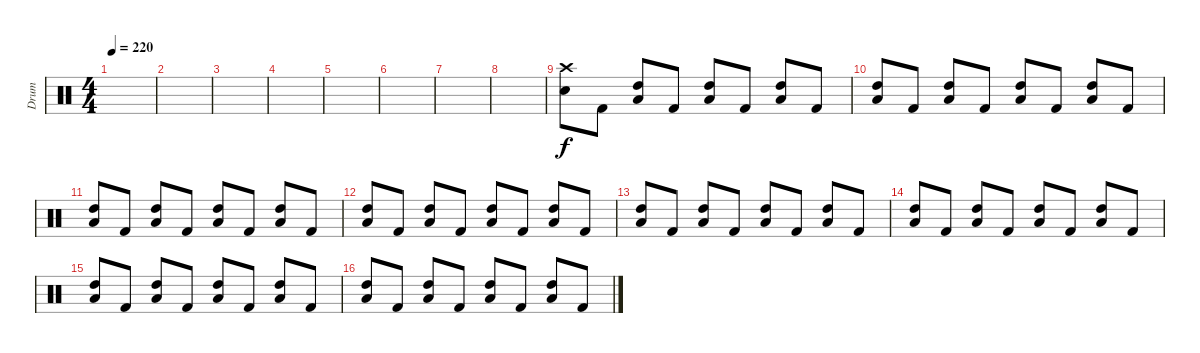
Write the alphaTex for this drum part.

\track ("Drum" "Drum") {instrument percussion}
\staff {score}
\articulation defaults
\ts (4 4)
\tempo 220
\clef neutral
\ks c
|
|
|
|
|
|
|
|
("Crash high (hit)" "Electric Snare (hit)").8 "Kick (hit) 2".8 ("High Tom (hit)" "Low Floor Tom (hit)").8 "Kick (hit) 2".8 ("High Tom (hit)" "Low Floor Tom (hit)").8 "Kick (hit) 2".8 ("High Tom (hit)" "Low Floor Tom (hit)").8 "Kick (hit) 2".8 |
("High Tom (hit)" "Low Floor Tom (hit)").8 "Kick (hit) 2".8 ("High Tom (hit)" "Low Floor Tom (hit)").8 "Kick (hit) 2".8 ("High Tom (hit)" "Low Floor Tom (hit)").8 "Kick (hit) 2".8 ("High Tom (hit)" "Low Floor Tom (hit)").8 "Kick (hit) 2".8 |
("High Tom (hit)" "Low Floor Tom (hit)").8 "Kick (hit) 2".8 ("High Tom (hit)" "Low Floor Tom (hit)").8 "Kick (hit) 2".8 ("High Tom (hit)" "Low Floor Tom (hit)").8 "Kick (hit) 2".8 ("High Tom (hit)" "Low Floor Tom (hit)").8 "Kick (hit) 2".8 |
("High Tom (hit)" "Low Floor Tom (hit)").8 "Kick (hit) 2".8 ("High Tom (hit)" "Low Floor Tom (hit)").8 "Kick (hit) 2".8 ("High Tom (hit)" "Low Floor Tom (hit)").8 "Kick (hit) 2".8 ("High Tom (hit)" "Low Floor Tom (hit)").8 "Kick (hit) 2".8 |
("High Tom (hit)" "Low Floor Tom (hit)").8 "Kick (hit) 2".8 ("High Tom (hit)" "Low Floor Tom (hit)").8 "Kick (hit) 2".8 ("High Tom (hit)" "Low Floor Tom (hit)").8 "Kick (hit) 2".8 ("High Tom (hit)" "Low Floor Tom (hit)").8 "Kick (hit) 2".8 |
("High Tom (hit)" "Low Floor Tom (hit)").8 "Kick (hit) 2".8 ("High Tom (hit)" "Low Floor Tom (hit)").8 "Kick (hit) 2".8 ("High Tom (hit)" "Low Floor Tom (hit)").8 "Kick (hit) 2".8 ("High Tom (hit)" "Low Floor Tom (hit)").8 "Kick (hit) 2".8 |
("High Tom (hit)" "Low Floor Tom (hit)").8 "Kick (hit) 2".8 ("High Tom (hit)" "Low Floor Tom (hit)").8 "Kick (hit) 2".8 ("High Tom (hit)" "Low Floor Tom (hit)").8 "Kick (hit) 2".8 ("High Tom (hit)" "Low Floor Tom (hit)").8 "Kick (hit) 2".8 |
("High Tom (hit)" "Low Floor Tom (hit)").8 "Kick (hit) 2".8 ("High Tom (hit)" "Low Floor Tom (hit)").8 "Kick (hit) 2".8 ("High Tom (hit)" "Low Floor Tom (hit)").8 "Kick (hit) 2".8 ("High Tom (hit)" "Low Floor Tom (hit)").8 "Kick (hit) 2".8
